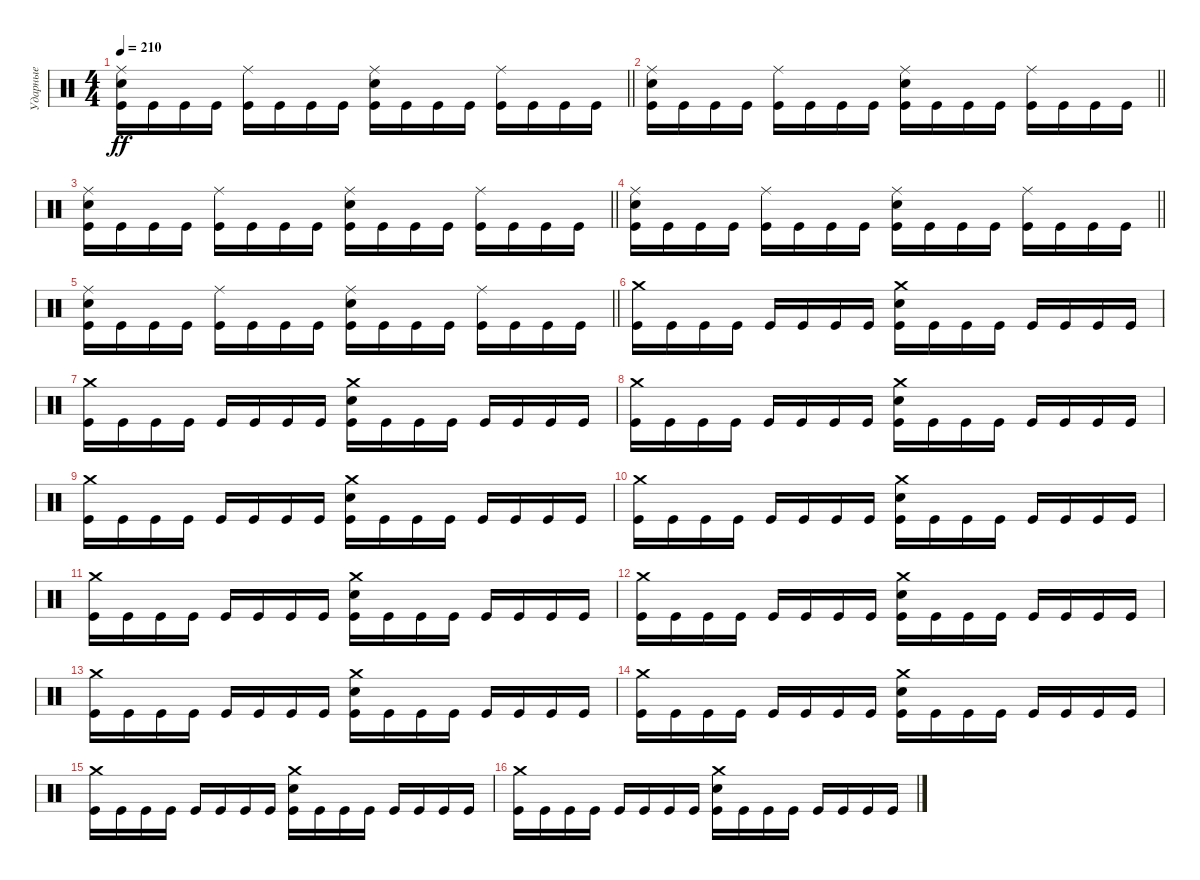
\track ("Ударные" "Ударные") {instrument percussion}
\staff {score}
\articulation defaults
\ts (4 4)
\tempo 210
\clef neutral
\barLineRight lightlight
\ks c
("Ride (middle)" "Electric Snare (hit)" "Kick (hit)").16{dy ff} "Kick (hit)".16 "Kick (hit)".16 "Kick (hit)".16 ("Ride (middle)" "Kick (hit)").16 "Kick (hit)".16 "Kick (hit)".16 "Kick (hit)".16 ("Ride (middle)" "Electric Snare (hit)" "Kick (hit)").16 "Kick (hit)".16 "Kick (hit)".16 "Kick (hit)".16 ("Ride (middle)" "Kick (hit)").16 "Kick (hit)".16 "Kick (hit)".16 "Kick (hit)".16 |
\barLineRight lightlight
("Ride (middle)" "Electric Snare (hit)" "Kick (hit)").16 "Kick (hit)".16 "Kick (hit)".16 "Kick (hit)".16 ("Ride (middle)" "Kick (hit)").16 "Kick (hit)".16 "Kick (hit)".16 "Kick (hit)".16 ("Ride (middle)" "Electric Snare (hit)" "Kick (hit)").16 "Kick (hit)".16 "Kick (hit)".16 "Kick (hit)".16 ("Ride (middle)" "Kick (hit)").16 "Kick (hit)".16 "Kick (hit)".16 "Kick (hit)".16 |
\barLineRight lightlight
("Ride (middle)" "Electric Snare (hit)" "Kick (hit)").16 "Kick (hit)".16 "Kick (hit)".16 "Kick (hit)".16 ("Ride (middle)" "Kick (hit)").16 "Kick (hit)".16 "Kick (hit)".16 "Kick (hit)".16 ("Ride (middle)" "Electric Snare (hit)" "Kick (hit)").16 "Kick (hit)".16 "Kick (hit)".16 "Kick (hit)".16 ("Ride (middle)" "Kick (hit)").16 "Kick (hit)".16 "Kick (hit)".16 "Kick (hit)".16 |
\barLineRight lightlight
("Ride (middle)" "Electric Snare (hit)" "Kick (hit)").16 "Kick (hit)".16 "Kick (hit)".16 "Kick (hit)".16 ("Ride (middle)" "Kick (hit)").16 "Kick (hit)".16 "Kick (hit)".16 "Kick (hit)".16 ("Ride (middle)" "Electric Snare (hit)" "Kick (hit)").16 "Kick (hit)".16 "Kick (hit)".16 "Kick (hit)".16 ("Ride (middle)" "Kick (hit)").16 "Kick (hit)".16 "Kick (hit)".16 "Kick (hit)".16 |
\barLineRight lightlight
("Ride (middle)" "Electric Snare (hit)" "Kick (hit)").16 "Kick (hit)".16 "Kick (hit)".16 "Kick (hit)".16 ("Ride (middle)" "Kick (hit)").16 "Kick (hit)".16 "Kick (hit)".16 "Kick (hit)".16 ("Ride (middle)" "Electric Snare (hit)" "Kick (hit)").16 "Kick (hit)".16 "Kick (hit)".16 "Kick (hit)".16 ("Ride (middle)" "Kick (hit)").16 "Kick (hit)".16 "Kick (hit)".16 "Kick (hit)".16 |
\section ("" "")
("Crash medium (hit)" "Kick (hit)").16 "Kick (hit)".16 "Kick (hit)".16 "Kick (hit)".16 "Kick (hit)".16 "Kick (hit)".16 "Kick (hit)".16 "Kick (hit)".16 ("Crash medium (hit)" "Electric Snare (hit)" "Kick (hit)").16 "Kick (hit)".16 "Kick (hit)".16 "Kick (hit)".16 "Kick (hit)".16 "Kick (hit)".16 "Kick (hit)".16 "Kick (hit)".16 |
("Crash medium (hit)" "Kick (hit)").16 "Kick (hit)".16 "Kick (hit)".16 "Kick (hit)".16 "Kick (hit)".16 "Kick (hit)".16 "Kick (hit)".16 "Kick (hit)".16 ("Crash medium (hit)" "Electric Snare (hit)" "Kick (hit)").16 "Kick (hit)".16 "Kick (hit)".16 "Kick (hit)".16 "Kick (hit)".16 "Kick (hit)".16 "Kick (hit)".16 "Kick (hit)".16 |
("Crash medium (hit)" "Kick (hit)").16 "Kick (hit)".16 "Kick (hit)".16 "Kick (hit)".16 "Kick (hit)".16 "Kick (hit)".16 "Kick (hit)".16 "Kick (hit)".16 ("Crash medium (hit)" "Electric Snare (hit)" "Kick (hit)").16 "Kick (hit)".16 "Kick (hit)".16 "Kick (hit)".16 "Kick (hit)".16 "Kick (hit)".16 "Kick (hit)".16 "Kick (hit)".16 |
("Crash medium (hit)" "Kick (hit)").16 "Kick (hit)".16 "Kick (hit)".16 "Kick (hit)".16 "Kick (hit)".16 "Kick (hit)".16 "Kick (hit)".16 "Kick (hit)".16 ("Crash medium (hit)" "Electric Snare (hit)" "Kick (hit)").16 "Kick (hit)".16 "Kick (hit)".16 "Kick (hit)".16 "Kick (hit)".16 "Kick (hit)".16 "Kick (hit)".16 "Kick (hit)".16 |
("Crash medium (hit)" "Kick (hit)").16 "Kick (hit)".16 "Kick (hit)".16 "Kick (hit)".16 "Kick (hit)".16 "Kick (hit)".16 "Kick (hit)".16 "Kick (hit)".16 ("Crash medium (hit)" "Electric Snare (hit)" "Kick (hit)").16 "Kick (hit)".16 "Kick (hit)".16 "Kick (hit)".16 "Kick (hit)".16 "Kick (hit)".16 "Kick (hit)".16 "Kick (hit)".16 |
("Crash medium (hit)" "Kick (hit)").16 "Kick (hit)".16 "Kick (hit)".16 "Kick (hit)".16 "Kick (hit)".16 "Kick (hit)".16 "Kick (hit)".16 "Kick (hit)".16 ("Crash medium (hit)" "Electric Snare (hit)" "Kick (hit)").16 "Kick (hit)".16 "Kick (hit)".16 "Kick (hit)".16 "Kick (hit)".16 "Kick (hit)".16 "Kick (hit)".16 "Kick (hit)".16 |
("Crash medium (hit)" "Kick (hit)").16 "Kick (hit)".16 "Kick (hit)".16 "Kick (hit)".16 "Kick (hit)".16 "Kick (hit)".16 "Kick (hit)".16 "Kick (hit)".16 ("Crash medium (hit)" "Electric Snare (hit)" "Kick (hit)").16 "Kick (hit)".16 "Kick (hit)".16 "Kick (hit)".16 "Kick (hit)".16 "Kick (hit)".16 "Kick (hit)".16 "Kick (hit)".16 |
("Crash medium (hit)" "Kick (hit)").16 "Kick (hit)".16 "Kick (hit)".16 "Kick (hit)".16 "Kick (hit)".16 "Kick (hit)".16 "Kick (hit)".16 "Kick (hit)".16 ("Crash medium (hit)" "Electric Snare (hit)" "Kick (hit)").16 "Kick (hit)".16 "Kick (hit)".16 "Kick (hit)".16 "Kick (hit)".16 "Kick (hit)".16 "Kick (hit)".16 "Kick (hit)".16 |
("Crash medium (hit)" "Kick (hit)").16 "Kick (hit)".16 "Kick (hit)".16 "Kick (hit)".16 "Kick (hit)".16 "Kick (hit)".16 "Kick (hit)".16 "Kick (hit)".16 ("Crash medium (hit)" "Electric Snare (hit)" "Kick (hit)").16 "Kick (hit)".16 "Kick (hit)".16 "Kick (hit)".16 "Kick (hit)".16 "Kick (hit)".16 "Kick (hit)".16 "Kick (hit)".16 |
("Crash medium (hit)" "Kick (hit)").16 "Kick (hit)".16 "Kick (hit)".16 "Kick (hit)".16 "Kick (hit)".16 "Kick (hit)".16 "Kick (hit)".16 "Kick (hit)".16 ("Crash medium (hit)" "Electric Snare (hit)" "Kick (hit)").16 "Kick (hit)".16 "Kick (hit)".16 "Kick (hit)".16 "Kick (hit)".16 "Kick (hit)".16 "Kick (hit)".16 "Kick (hit)".16 |
("Crash medium (hit)" "Kick (hit)").16 "Kick (hit)".16 "Kick (hit)".16 "Kick (hit)".16 "Kick (hit)".16 "Kick (hit)".16 "Kick (hit)".16 "Kick (hit)".16 ("Crash medium (hit)" "Electric Snare (hit)" "Kick (hit)").16 "Kick (hit)".16 "Kick (hit)".16 "Kick (hit)".16 "Kick (hit)".16 "Kick (hit)".16 "Kick (hit)".16 "Kick (hit)".16
